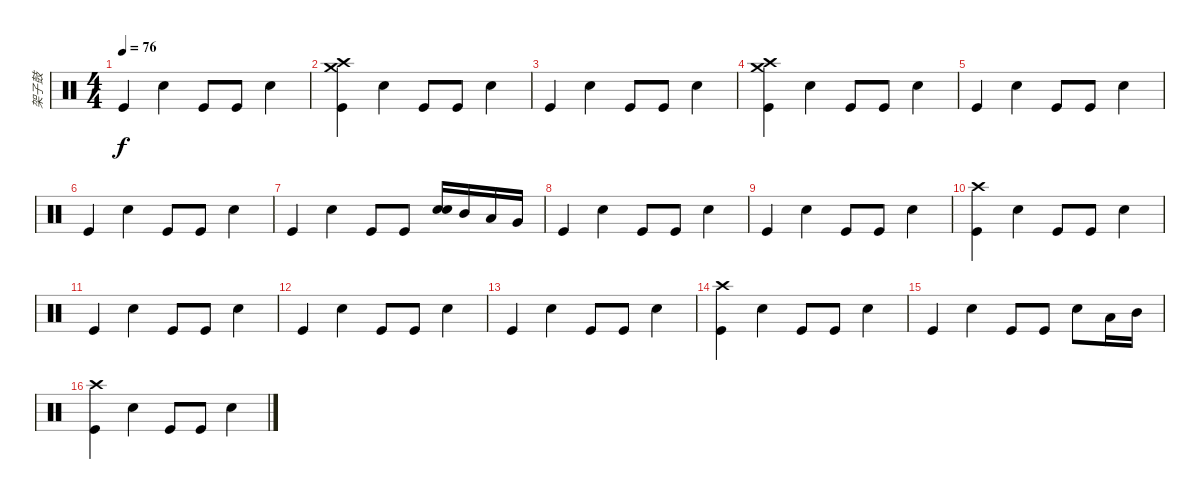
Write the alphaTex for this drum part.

\track ("架子鼓" "架子鼓") {instrument percussion}
\staff {score}
\articulation defaults
\ts (4 4)
\tempo 76
\clef neutral
\ks c "Kick (hit)".4{dy f} "Electric Snare (hit)".4 "Kick (hit)".8 "Kick (hit)".8 "Electric Snare (hit)".4
|
("Crash high (hit)" "Crash medium (hit)" "Kick (hit)").4 "Electric Snare (hit)".4 "Kick (hit)".8 "Kick (hit)".8 "Electric Snare (hit)".4 |
"Kick (hit)".4 "Electric Snare (hit)".4 "Kick (hit)".8 "Kick (hit)".8 "Electric Snare (hit)".4 |
("Crash high (hit)" "Crash medium (hit)" "Kick (hit)").4 "Electric Snare (hit)".4 "Kick (hit)".8 "Kick (hit)".8 "Electric Snare (hit)".4 |
"Kick (hit)".4 "Electric Snare (hit)".4 "Kick (hit)".8 "Kick (hit)".8 "Electric Snare (hit)".4 |
"Kick (hit)".4 "Electric Snare (hit)".4 "Kick (hit)".8 "Kick (hit)".8 "Electric Snare (hit)".4 |
"Kick (hit)".4 "Electric Snare (hit)".4 "Kick (hit)".8 "Kick (hit)".8 ("Electric Snare (hit)" "Electric Snare (hit)").16 "Mid Tom (hit)".16 "Low Tom (hit)".16 "Very Low Tom (hit)".16 |
"Kick (hit)".4 "Electric Snare (hit)".4 "Kick (hit)".8 "Kick (hit)".8 "Electric Snare (hit)".4 |
"Kick (hit)".4 "Electric Snare (hit)".4 "Kick (hit)".8 "Kick (hit)".8 "Electric Snare (hit)".4 |
("Crash high (hit)" "Kick (hit)").4 "Electric Snare (hit)".4 "Kick (hit)".8 "Kick (hit)".8 "Electric Snare (hit)".4 |
"Kick (hit)".4 "Electric Snare (hit)".4 "Kick (hit)".8 "Kick (hit)".8 "Electric Snare (hit)".4 |
"Kick (hit)".4 "Electric Snare (hit)".4 "Kick (hit)".8 "Kick (hit)".8 "Electric Snare (hit)".4 |
"Kick (hit)".4 "Electric Snare (hit)".4 "Kick (hit)".8 "Kick (hit)".8 "Electric Snare (hit)".4 |
("Crash high (hit)" "Kick (hit)").4 "Electric Snare (hit)".4 "Kick (hit)".8 "Kick (hit)".8 "Electric Snare (hit)".4 |
"Kick (hit)".4 "Electric Snare (hit)".4 "Kick (hit)".8 "Kick (hit)".8 "Electric Snare (hit)".8 "Low Tom (hit)".16 "Mid Tom (hit)".16 |
("Crash high (hit)" "Kick (hit)").4 "Electric Snare (hit)".4 "Kick (hit)".8 "Kick (hit)".8 "Electric Snare (hit)".4
